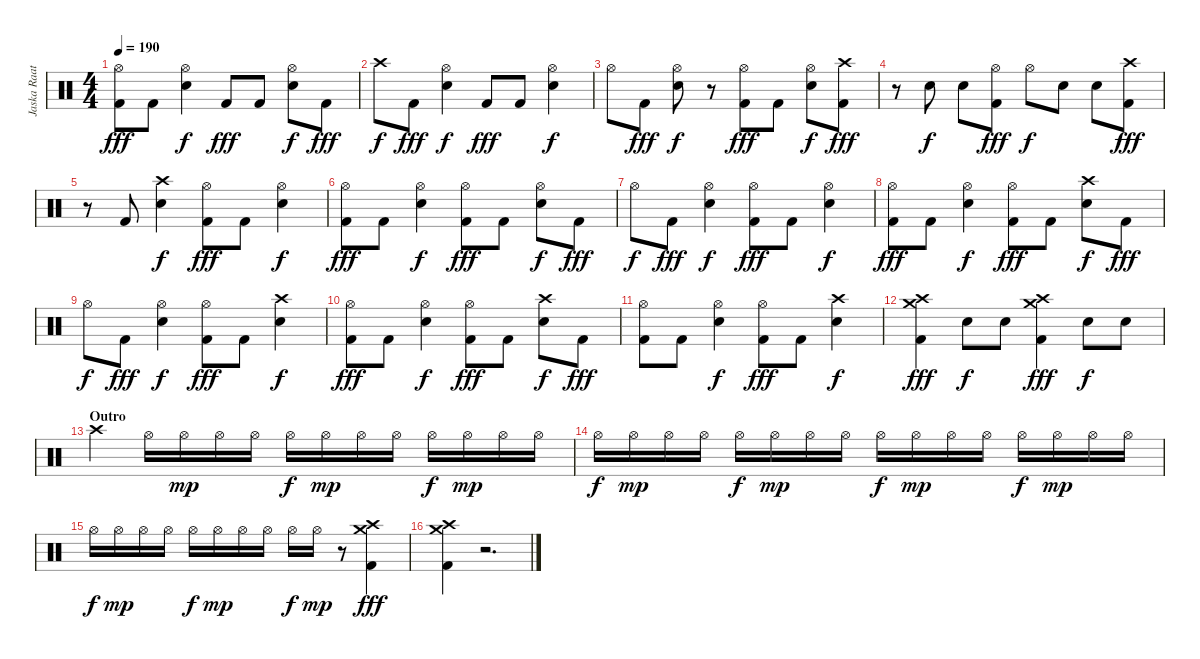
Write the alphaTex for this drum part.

\track ("Jaska Raatikainen (Drums)" "Jaska Raat") {instrument percussion}
\staff {score}
\articulation defaults
\ts (4 4)
\tempo 190
\clef neutral
\ks c
("Hi-Hat (open)" "Kick (hit) 2").8{dy fff} "Kick (hit) 2".8 ("Hi-Hat (open)" "Electric Snare (hit)").4{dy f} "Kick (hit) 2".8{dy fff} "Kick (hit) 2".8 ("Hi-Hat (open)" "Electric Snare (hit)").8{dy f} "Kick (hit) 2".8{dy fff} |
"Crash high (hit)".8{dy f} "Kick (hit) 2".8{dy fff} ("Hi-Hat (open)" "Electric Snare (hit)").4{dy f} "Kick (hit) 2".8{dy fff} "Kick (hit) 2".8 ("Hi-Hat (open)" "Electric Snare (hit)").4{dy f} |
"Hi-Hat (open)".8 "Kick (hit) 2".8{dy fff} ("Hi-Hat (open)" "Electric Snare (hit)").8{dy f} r.8 ("Hi-Hat (open)" "Kick (hit) 2").8{dy fff} "Kick (hit) 2".8 ("Hi-Hat (open)" "Electric Snare (hit)").8{dy f} ("Crash high (hit)" "Kick (hit) 2").8{dy fff} |
r.8 "Electric Snare (hit)".8{dy f} "Electric Snare (hit)".8 ("Hi-Hat (open)" "Kick (hit) 2").8{dy fff} "Hi-Hat (open)".8{dy f} "Electric Snare (hit)".8 "Electric Snare (hit)".8 ("Crash high (hit)" "Kick (hit) 2").8{dy fff} |
r.8 "Kick (hit) 2".8 ("Crash high (hit)" "Electric Snare (hit)").4{dy f} ("Hi-Hat (open)" "Kick (hit) 2").8{dy fff} "Kick (hit) 2".8 ("Hi-Hat (open)" "Electric Snare (hit)").4{dy f} |
("Hi-Hat (open)" "Kick (hit) 2").8{dy fff} "Kick (hit) 2".8 ("Hi-Hat (open)" "Electric Snare (hit)").4{dy f} ("Hi-Hat (open)" "Kick (hit) 2").8{dy fff} "Kick (hit) 2".8 ("Hi-Hat (open)" "Electric Snare (hit)").8{dy f} "Kick (hit) 2".8{dy fff} |
"Hi-Hat (open)".8{dy f} "Kick (hit) 2".8{dy fff} ("Hi-Hat (open)" "Electric Snare (hit)").4{dy f} ("Hi-Hat (open)" "Kick (hit) 2").8{dy fff} "Kick (hit) 2".8 ("Hi-Hat (open)" "Electric Snare (hit)").4{dy f} |
("Hi-Hat (open)" "Kick (hit) 2").8{dy fff} "Kick (hit) 2".8 ("Hi-Hat (open)" "Electric Snare (hit)").4{dy f} ("Hi-Hat (open)" "Kick (hit) 2").8{dy fff} "Kick (hit) 2".8 ("Crash high (hit)" "Electric Snare (hit)").8{dy f} "Kick (hit) 2".8{dy fff} |
"Hi-Hat (open)".8{dy f} "Kick (hit) 2".8{dy fff} ("Hi-Hat (open)" "Electric Snare (hit)").4{dy f} ("Hi-Hat (open)" "Kick (hit) 2").8{dy fff} "Kick (hit) 2".8 ("Crash high (hit)" "Electric Snare (hit)").4{dy f} |
("Hi-Hat (open)" "Kick (hit) 2").8{dy fff} "Kick (hit) 2".8 ("Hi-Hat (open)" "Electric Snare (hit)").4{dy f} ("Hi-Hat (open)" "Kick (hit) 2").8{dy fff} "Kick (hit) 2".8 ("Crash high (hit)" "Electric Snare (hit)").8{dy f} "Kick (hit) 2".8{dy fff} |
("Hi-Hat (open)" "Kick (hit) 2").8 "Kick (hit) 2".8 ("Hi-Hat (open)" "Electric Snare (hit)").4{dy f} ("Hi-Hat (open)" "Kick (hit) 2").8{dy fff} "Kick (hit) 2".8 ("Crash high (hit)" "Electric Snare (hit)").4{dy f} |
("Crash medium (hit)" "Crash high (hit)" "Kick (hit) 2").4{dy fff} "Electric Snare (hit)".8{dy f} "Electric Snare (hit)".8 ("Crash medium (hit)" "Crash high (hit)" "Kick (hit) 2").4{dy fff} "Electric Snare (hit)".8{dy f} "Electric Snare (hit)".8 |
\section ("" "Outro")
"Crash high (hit)".4 "Hi-Hat (open)".16 "Hi-Hat (open)".16{dy mp} "Hi-Hat (open)".16 "Hi-Hat (open)".16 "Hi-Hat (open)".16{dy f} "Hi-Hat (open)".16{dy mp} "Hi-Hat (open)".16 "Hi-Hat (open)".16 "Hi-Hat (open)".16{dy f} "Hi-Hat (open)".16{dy mp} "Hi-Hat (open)".16 "Hi-Hat (open)".16 |
"Hi-Hat (open)".16{dy f} "Hi-Hat (open)".16{dy mp} "Hi-Hat (open)".16 "Hi-Hat (open)".16 "Hi-Hat (open)".16{dy f} "Hi-Hat (open)".16{dy mp} "Hi-Hat (open)".16 "Hi-Hat (open)".16 "Hi-Hat (open)".16{dy f} "Hi-Hat (open)".16{dy mp} "Hi-Hat (open)".16 "Hi-Hat (open)".16 "Hi-Hat (open)".16{dy f} "Hi-Hat (open)".16{dy mp} "Hi-Hat (open)".16 "Hi-Hat (open)".16 |
"Hi-Hat (open)".16{dy f} "Hi-Hat (open)".16{dy mp} "Hi-Hat (open)".16 "Hi-Hat (open)".16 "Hi-Hat (open)".16{dy f} "Hi-Hat (open)".16{dy mp} "Hi-Hat (open)".16 "Hi-Hat (open)".16 "Hi-Hat (open)".16{dy f} "Hi-Hat (open)".16{dy mp} r.8 ("Crash medium (hit)" "Crash high (hit)" "Kick (hit) 2").4{dy fff} |
("Crash medium (hit)" "Crash high (hit)" "Kick (hit) 2").4 r.2{d}
